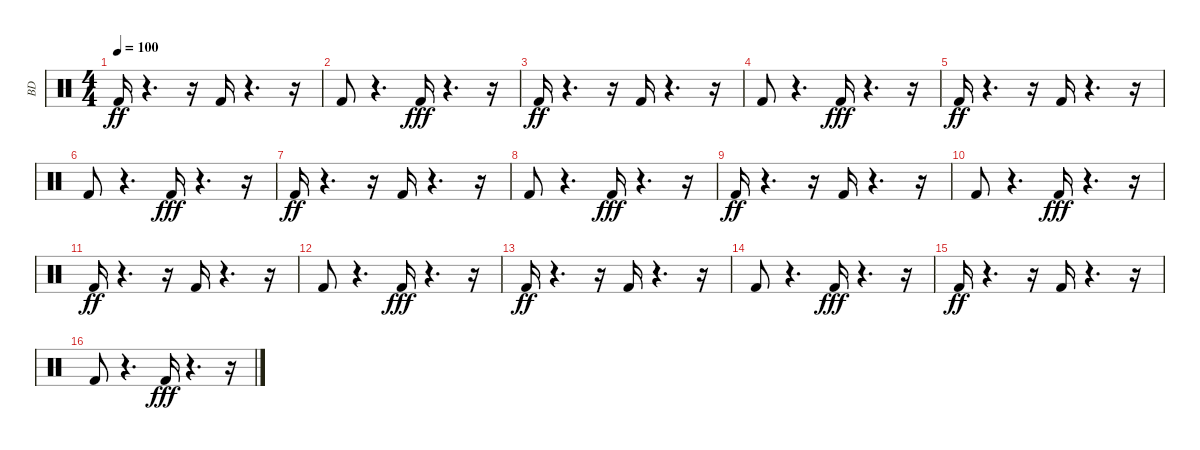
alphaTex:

\track ("BD" "BD") {instrument percussion}
\staff {score}
\articulation defaults
\ts (4 4)
\tempo 100
\clef neutral
\ks c "Kick (hit) 2".16{dy ff}
r.4{d} r.16 "Kick (hit) 2".16 r.4{d} r.16 |
"Kick (hit) 2".8 r.4{d} "Kick (hit) 2".16{dy fff} r.4{d} r.16 |
"Kick (hit) 2".16{dy ff} r.4{d} r.16 "Kick (hit) 2".16 r.4{d} r.16 |
"Kick (hit) 2".8 r.4{d} "Kick (hit) 2".16{dy fff} r.4{d} r.16 |
"Kick (hit) 2".16{dy ff} r.4{d} r.16 "Kick (hit) 2".16 r.4{d} r.16 |
"Kick (hit) 2".8 r.4{d} "Kick (hit) 2".16{dy fff} r.4{d} r.16 |
"Kick (hit) 2".16{dy ff} r.4{d} r.16 "Kick (hit) 2".16 r.4{d} r.16 |
"Kick (hit) 2".8 r.4{d} "Kick (hit) 2".16{dy fff} r.4{d} r.16 |
"Kick (hit) 2".16{dy ff} r.4{d} r.16 "Kick (hit) 2".16 r.4{d} r.16 |
"Kick (hit) 2".8 r.4{d} "Kick (hit) 2".16{dy fff} r.4{d} r.16 |
"Kick (hit) 2".16{dy ff} r.4{d} r.16 "Kick (hit) 2".16 r.4{d} r.16 |
"Kick (hit) 2".8 r.4{d} "Kick (hit) 2".16{dy fff} r.4{d} r.16 |
"Kick (hit) 2".16{dy ff} r.4{d} r.16 "Kick (hit) 2".16 r.4{d} r.16 |
"Kick (hit) 2".8 r.4{d} "Kick (hit) 2".16{dy fff} r.4{d} r.16 |
"Kick (hit) 2".16{dy ff} r.4{d} r.16 "Kick (hit) 2".16 r.4{d} r.16 |
"Kick (hit) 2".8 r.4{d} "Kick (hit) 2".16{dy fff} r.4{d} r.16
